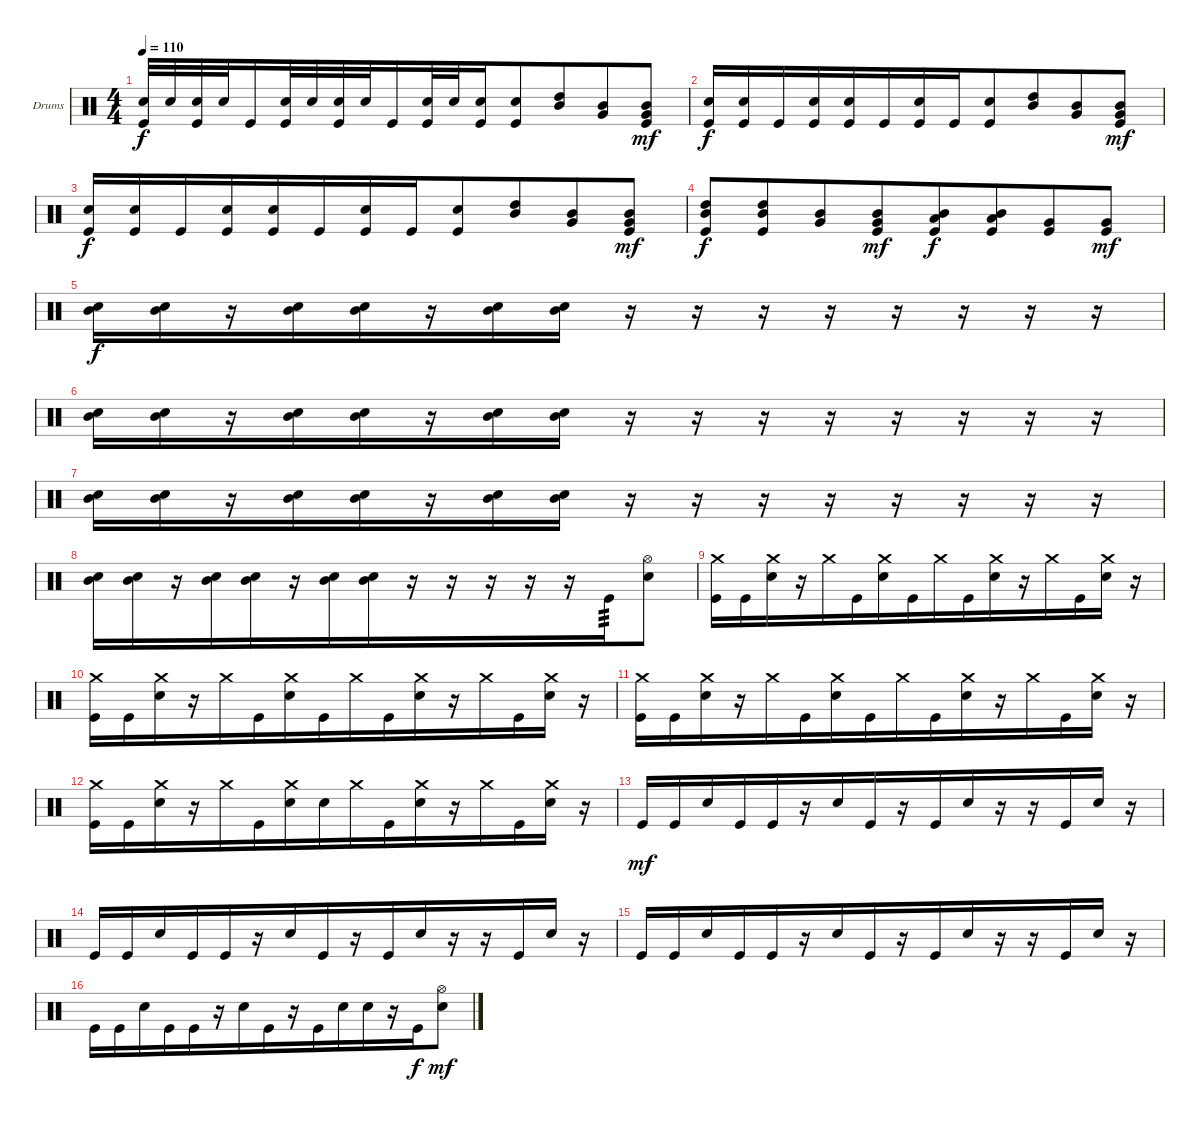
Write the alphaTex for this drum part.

\bracketExtendMode groupsimilarinstruments
\firstSystemTrackNameOrientation horizontal
\otherSystemsTrackNameOrientation horizontal
\track ("Drumkit" "Drums") {instrument percussion}
\staff {score}
\articulation defaults
\ts (4 4)
\beaming (8 8)
\tempo 110
\clef neutral
\ks c
("Snare (hit) 2" "Kick (hit)").32{dy f} "Snare (hit) 2".32 ("Snare (hit) 2" "Kick (hit)").32 "Snare (hit) 2".32 "Kick (hit)".16 ("Snare (hit) 2" "Kick (hit)").32 "Snare (hit) 2".32 ("Snare (hit) 2" "Kick (hit)").32 "Snare (hit) 2".32 "Kick (hit)".16 ("Snare (hit) 2" "Kick (hit)").32 "Snare (hit) 2".32 ("Snare (hit) 2" "Kick (hit)").16 ("Snare (hit) 2" "Kick (hit)").8 ("High Tom (hit)" "Mid Tom (hit)").8 ("Very Low Tom (hit)" "Mid Tom (hit)").8 ("Very Low Tom (hit)" "Mid Tom (hit)" "Kick (hit)").8{dy mf} |
("Snare (hit) 2" "Kick (hit)").16{dy f} ("Snare (hit) 2" "Kick (hit)").16 "Kick (hit)".16 ("Snare (hit) 2" "Kick (hit)").16 ("Snare (hit) 2" "Kick (hit)").16 "Kick (hit)".16 ("Snare (hit) 2" "Kick (hit)").16 "Kick (hit)".16 ("Snare (hit) 2" "Kick (hit)").8 ("High Tom (hit)" "Mid Tom (hit)").8 ("Very Low Tom (hit)" "Mid Tom (hit)").8 ("Very Low Tom (hit)" "Mid Tom (hit)" "Kick (hit)").8{dy mf} |
("Snare (hit) 2" "Kick (hit)").16{dy f} ("Snare (hit) 2" "Kick (hit)").16 "Kick (hit)".16 ("Snare (hit) 2" "Kick (hit)").16 ("Snare (hit) 2" "Kick (hit)").16 "Kick (hit)".16 ("Snare (hit) 2" "Kick (hit)").16 "Kick (hit)".16 ("Snare (hit) 2" "Kick (hit)").8 ("High Tom (hit)" "Mid Tom (hit)").8 ("Very Low Tom (hit)" "Mid Tom (hit)").8 ("Very Low Tom (hit)" "Mid Tom (hit)" "Kick (hit)").8{dy mf} |
("Kick (hit)" "Mid Tom (hit)" "High Tom (hit)").8{dy f} ("High Tom (hit)" "Mid Tom (hit)" "Kick (hit)").8 ("Very Low Tom (hit)" "Mid Tom (hit)").8 ("Very Low Tom (hit)" "Mid Tom (hit)" "Kick (hit)").8{dy mf} ("Kick (hit)" "Mid Tom (hit)" "Low Tom (hit)").8{dy f} ("Mid Tom (hit)" "Kick (hit)" "Low Tom (hit)").8 ("Very Low Tom (hit)" "Kick (hit)").8 ("Very Low Tom (hit)" "Kick (hit)").8{dy mf} |
("Snare (hit) 2" "Mid Tom (hit)").16{dy f} ("Snare (hit) 2" "Mid Tom (hit)").16 r.16 ("Snare (hit) 2" "Mid Tom (hit)").16 ("Snare (hit) 2" "Mid Tom (hit)").16 r.16 ("Snare (hit) 2" "Mid Tom (hit)").16 ("Snare (hit) 2" "Mid Tom (hit)").16 r.16 r.16 r.16 r.16 r.16 r.16 r.16 r.16 |
("Snare (hit) 2" "Mid Tom (hit)").16 ("Snare (hit) 2" "Mid Tom (hit)").16 r.16 ("Snare (hit) 2" "Mid Tom (hit)").16 ("Snare (hit) 2" "Mid Tom (hit)").16 r.16 ("Snare (hit) 2" "Mid Tom (hit)").16 ("Snare (hit) 2" "Mid Tom (hit)").16 r.16 r.16 r.16 r.16 r.16 r.16 r.16 r.16 |
("Snare (hit) 2" "Mid Tom (hit)").16 ("Snare (hit) 2" "Mid Tom (hit)").16 r.16 ("Snare (hit) 2" "Mid Tom (hit)").16 ("Snare (hit) 2" "Mid Tom (hit)").16 r.16 ("Snare (hit) 2" "Mid Tom (hit)").16 ("Snare (hit) 2" "Mid Tom (hit)").16 r.16 r.16 r.16 r.16 r.16 r.16 r.16 r.16 |
("Snare (hit) 2" "Mid Tom (hit)").16 ("Snare (hit) 2" "Mid Tom (hit)").16 r.16 ("Snare (hit) 2" "Mid Tom (hit)").16 ("Snare (hit) 2" "Mid Tom (hit)").16 r.16 ("Snare (hit) 2" "Mid Tom (hit)").16 ("Snare (hit) 2" "Mid Tom (hit)").16 r.16 r.16 r.16 r.16 r.16 "Kick (hit)".16{tp 3} ("Hi-Hat (open)" "Snare (hit) 2").8 |
("Crash medium (hit)" "Kick (hit)").16 "Kick (hit)".16 ("Crash medium (hit)" "Snare (hit) 2").16 r.16 "Crash medium (hit)".16 "Kick (hit)".16 ("Crash medium (hit)" "Snare (hit) 2").16 "Kick (hit)".16 "Crash medium (hit)".16 "Kick (hit)".16 ("Crash medium (hit)" "Snare (hit) 2").16 r.16 "Crash medium (hit)".16 "Kick (hit)".16 ("Crash medium (hit)" "Snare (hit) 2").16 r.16 |
("Crash medium (hit)" "Kick (hit)").16 "Kick (hit)".16 ("Crash medium (hit)" "Snare (hit) 2").16 r.16 "Crash medium (hit)".16 "Kick (hit)".16 ("Crash medium (hit)" "Snare (hit) 2").16 "Kick (hit)".16 "Crash medium (hit)".16 "Kick (hit)".16 ("Crash medium (hit)" "Snare (hit) 2").16 r.16 "Crash medium (hit)".16 "Kick (hit)".16 ("Crash medium (hit)" "Snare (hit) 2").16 r.16 |
("Crash medium (hit)" "Kick (hit)").16 "Kick (hit)".16 ("Crash medium (hit)" "Snare (hit) 2").16 r.16 "Crash medium (hit)".16 "Kick (hit)".16 ("Crash medium (hit)" "Snare (hit) 2").16 "Kick (hit)".16 "Crash medium (hit)".16 "Kick (hit)".16 ("Crash medium (hit)" "Snare (hit) 2").16 r.16 "Crash medium (hit)".16 "Kick (hit)".16 ("Crash medium (hit)" "Snare (hit) 2").16 r.16 |
("Crash medium (hit)" "Kick (hit)").16 "Kick (hit)".16 ("Crash medium (hit)" "Snare (hit) 2").16 r.16 "Crash medium (hit)".16 "Kick (hit)".16 ("Crash medium (hit)" "Snare (hit) 2").16 "Snare (hit) 2".16 "Crash medium (hit)".16 "Kick (hit)".16 ("Crash medium (hit)" "Snare (hit) 2").16 r.16 "Crash medium (hit)".16 "Kick (hit)".16 ("Crash medium (hit)" "Snare (hit) 2").16 r.16 |
"Kick (hit)".16{dy mf} "Kick (hit)".16 "Snare (hit) 2".16 "Kick (hit)".16 "Kick (hit)".16 r.16 "Snare (hit) 2".16 "Kick (hit)".16 r.16 "Kick (hit)".16 "Snare (hit) 2".16 r.16 r.16 "Kick (hit)".16 "Snare (hit) 2".16 r.16 |
"Kick (hit)".16 "Kick (hit)".16 "Snare (hit) 2".16 "Kick (hit)".16 "Kick (hit)".16 r.16 "Snare (hit) 2".16 "Kick (hit)".16 r.16 "Kick (hit)".16 "Snare (hit) 2".16 r.16 r.16 "Kick (hit)".16 "Snare (hit) 2".16 r.16 |
"Kick (hit)".16 "Kick (hit)".16 "Snare (hit) 2".16 "Kick (hit)".16 "Kick (hit)".16 r.16 "Snare (hit) 2".16 "Kick (hit)".16 r.16 "Kick (hit)".16 "Snare (hit) 2".16 r.16 r.16 "Kick (hit)".16 "Snare (hit) 2".16 r.16 |
"Kick (hit)".16 "Kick (hit)".16 "Snare (hit) 2".16 "Kick (hit)".16 "Kick (hit)".16 r.16 "Snare (hit) 2".16 "Kick (hit)".16 r.16 "Kick (hit)".16 "Snare (hit) 2".16 "Snare (hit) 2".16 r.16 "Kick (hit)".16{dy f} ("Hi-Hat (open)" "Snare (hit) 2").8{dy mf}
